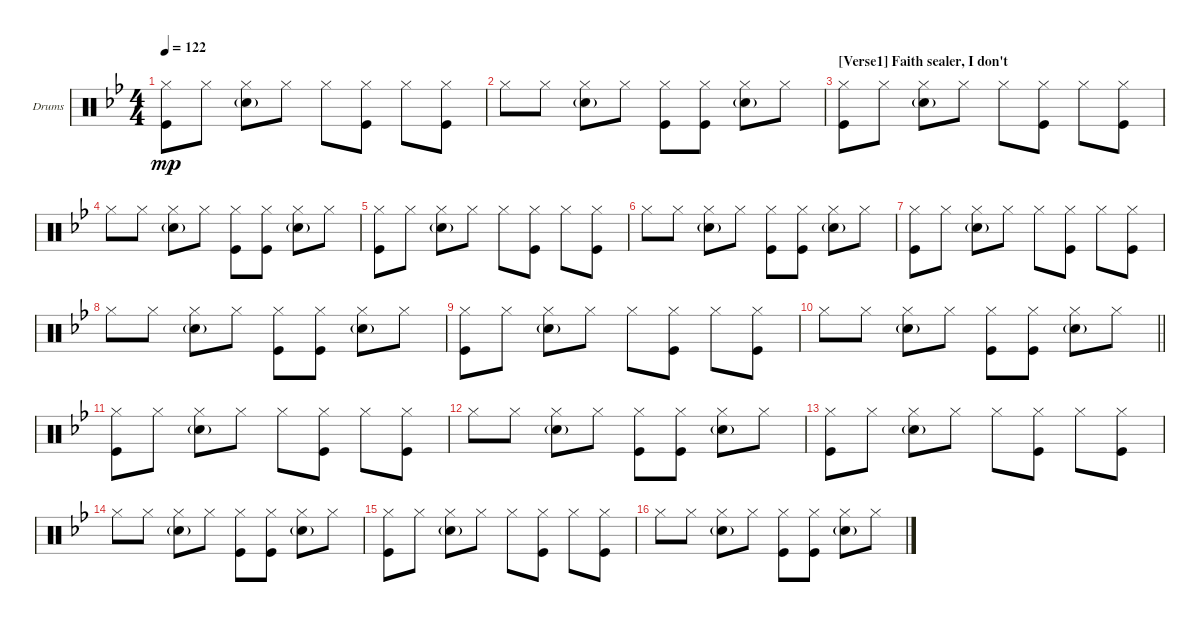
\defaultSystemsLayout 4
\bracketExtendMode groupsimilarinstruments
\firstSystemTrackNameOrientation horizontal
\otherSystemsTrackNameOrientation horizontal
\track ("Drumkit" "Drums") {instrument percussion}
\staff {score}
\articulation defaults
\ts (4 4)
\tempo 122
\clef neutral
\ks bb
("Hi-Hat (closed)" "Kick (hit)").8{dy mp} "Hi-Hat (closed)".8 ("Hi-Hat (closed)" "Snare (hit) 2"{g}).8 "Hi-Hat (closed)".8 "Hi-Hat (closed)".8 ("Hi-Hat (closed)" "Kick (hit)").8 "Hi-Hat (closed)".8 ("Hi-Hat (closed)" "Kick (hit)").8 |
"Hi-Hat (closed)".8 "Hi-Hat (closed)".8 ("Hi-Hat (closed)" "Snare (hit) 2"{g}).8 "Hi-Hat (closed)".8 ("Hi-Hat (closed)" "Kick (hit)").8 ("Hi-Hat (closed)" "Kick (hit)").8 ("Hi-Hat (closed)" "Snare (hit) 2"{g}).8 "Hi-Hat (closed)".8 |
\section ("" "[Verse1] Faith sealer, I don't")
("Hi-Hat (closed)" "Kick (hit)").8 "Hi-Hat (closed)".8 ("Hi-Hat (closed)" "Snare (hit) 2"{g}).8 "Hi-Hat (closed)".8 "Hi-Hat (closed)".8 ("Hi-Hat (closed)" "Kick (hit)").8 "Hi-Hat (closed)".8 ("Hi-Hat (closed)" "Kick (hit)").8 |
"Hi-Hat (closed)".8 "Hi-Hat (closed)".8 ("Hi-Hat (closed)" "Snare (hit) 2"{g}).8 "Hi-Hat (closed)".8 ("Hi-Hat (closed)" "Kick (hit)").8 ("Hi-Hat (closed)" "Kick (hit)").8 ("Hi-Hat (closed)" "Snare (hit) 2"{g}).8 "Hi-Hat (closed)".8 |
("Hi-Hat (closed)" "Kick (hit)").8 "Hi-Hat (closed)".8 ("Hi-Hat (closed)" "Snare (hit) 2"{g}).8 "Hi-Hat (closed)".8 "Hi-Hat (closed)".8 ("Hi-Hat (closed)" "Kick (hit)").8 "Hi-Hat (closed)".8 ("Hi-Hat (closed)" "Kick (hit)").8 |
"Hi-Hat (closed)".8 "Hi-Hat (closed)".8 ("Hi-Hat (closed)" "Snare (hit) 2"{g}).8 "Hi-Hat (closed)".8 ("Hi-Hat (closed)" "Kick (hit)").8 ("Hi-Hat (closed)" "Kick (hit)").8 ("Hi-Hat (closed)" "Snare (hit) 2"{g}).8 "Hi-Hat (closed)".8 |
("Hi-Hat (closed)" "Kick (hit)").8 "Hi-Hat (closed)".8 ("Hi-Hat (closed)" "Snare (hit) 2"{g}).8 "Hi-Hat (closed)".8 "Hi-Hat (closed)".8 ("Hi-Hat (closed)" "Kick (hit)").8 "Hi-Hat (closed)".8 ("Hi-Hat (closed)" "Kick (hit)").8 |
"Hi-Hat (closed)".8 "Hi-Hat (closed)".8 ("Hi-Hat (closed)" "Snare (hit) 2"{g}).8 "Hi-Hat (closed)".8 ("Hi-Hat (closed)" "Kick (hit)").8 ("Hi-Hat (closed)" "Kick (hit)").8 ("Hi-Hat (closed)" "Snare (hit) 2"{g}).8 "Hi-Hat (closed)".8 |
("Hi-Hat (closed)" "Kick (hit)").8 "Hi-Hat (closed)".8 ("Hi-Hat (closed)" "Snare (hit) 2"{g}).8 "Hi-Hat (closed)".8 "Hi-Hat (closed)".8 ("Hi-Hat (closed)" "Kick (hit)").8 "Hi-Hat (closed)".8 ("Hi-Hat (closed)" "Kick (hit)").8 |
\barLineRight lightlight "Hi-Hat (closed)".8 "Hi-Hat (closed)".8
("Hi-Hat (closed)" "Snare (hit) 2"{g}).8 "Hi-Hat (closed)".8 ("Hi-Hat (closed)" "Kick (hit)").8 ("Hi-Hat (closed)" "Kick (hit)").8 ("Hi-Hat (closed)" "Snare (hit) 2"{g}).8 "Hi-Hat (closed)".8 |
("Hi-Hat (closed)" "Kick (hit)").8 "Hi-Hat (closed)".8 ("Hi-Hat (closed)" "Snare (hit) 2"{g}).8 "Hi-Hat (closed)".8 "Hi-Hat (closed)".8 ("Hi-Hat (closed)" "Kick (hit)").8 "Hi-Hat (closed)".8 ("Hi-Hat (closed)" "Kick (hit)").8 |
"Hi-Hat (closed)".8 "Hi-Hat (closed)".8 ("Hi-Hat (closed)" "Snare (hit) 2"{g}).8 "Hi-Hat (closed)".8 ("Hi-Hat (closed)" "Kick (hit)").8 ("Hi-Hat (closed)" "Kick (hit)").8 ("Hi-Hat (closed)" "Snare (hit) 2"{g}).8 "Hi-Hat (closed)".8 |
("Hi-Hat (closed)" "Kick (hit)").8 "Hi-Hat (closed)".8 ("Hi-Hat (closed)" "Snare (hit) 2"{g}).8 "Hi-Hat (closed)".8 "Hi-Hat (closed)".8 ("Hi-Hat (closed)" "Kick (hit)").8 "Hi-Hat (closed)".8 ("Hi-Hat (closed)" "Kick (hit)").8 |
"Hi-Hat (closed)".8 "Hi-Hat (closed)".8 ("Hi-Hat (closed)" "Snare (hit) 2"{g}).8 "Hi-Hat (closed)".8 ("Hi-Hat (closed)" "Kick (hit)").8 ("Hi-Hat (closed)" "Kick (hit)").8 ("Hi-Hat (closed)" "Snare (hit) 2"{g}).8 "Hi-Hat (closed)".8 |
("Hi-Hat (closed)" "Kick (hit)").8 "Hi-Hat (closed)".8 ("Hi-Hat (closed)" "Snare (hit) 2"{g}).8 "Hi-Hat (closed)".8 "Hi-Hat (closed)".8 ("Hi-Hat (closed)" "Kick (hit)").8 "Hi-Hat (closed)".8 ("Hi-Hat (closed)" "Kick (hit)").8 |
"Hi-Hat (closed)".8 "Hi-Hat (closed)".8 ("Hi-Hat (closed)" "Snare (hit) 2"{g}).8 "Hi-Hat (closed)".8 ("Hi-Hat (closed)" "Kick (hit)").8 ("Hi-Hat (closed)" "Kick (hit)").8 ("Hi-Hat (closed)" "Snare (hit) 2"{g}).8 "Hi-Hat (closed)".8
